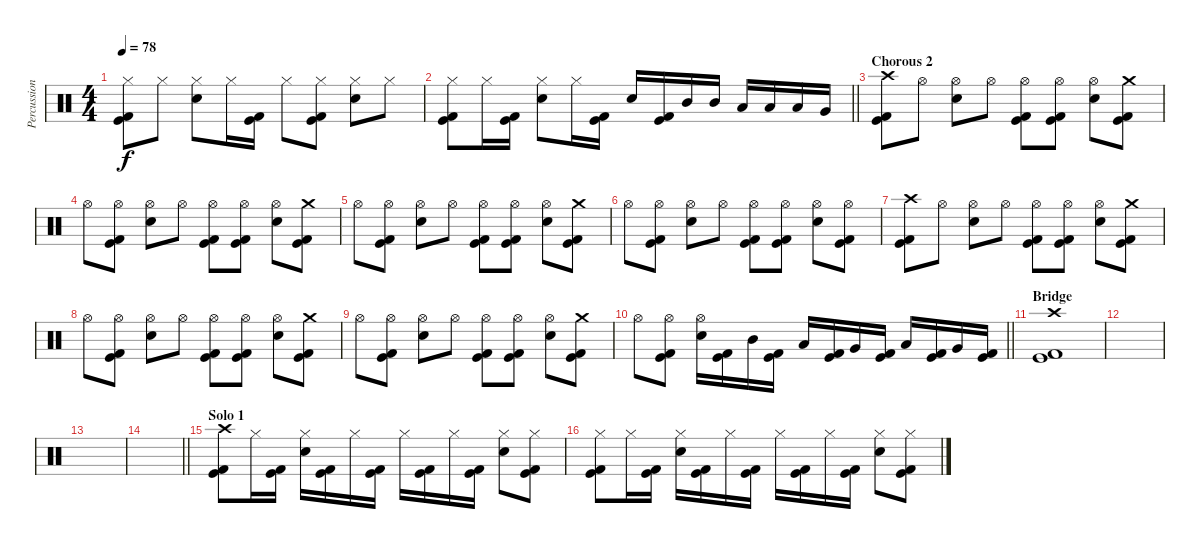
\track ("Percussion" "Percussion") {instrument percussion}
\staff {score}
\articulation defaults
\ts (4 4)
\tempo 78
\clef neutral
\ks c
("Hi-Hat (closed)" "Kick (hit)" "Kick (hit) 2").8{dy f} "Hi-Hat (closed)".8 ("Hi-Hat (closed)" "Electric Snare (hit)").8 "Hi-Hat (closed)".16 ("Kick (hit)" "Kick (hit) 2").16 "Hi-Hat (closed)".8 ("Hi-Hat (closed)" "Kick (hit)" "Kick (hit) 2").8 ("Hi-Hat (closed)" "Electric Snare (hit)").8 "Hi-Hat (closed)".8 |
\barLineRight lightlight
("Hi-Hat (closed)" "Kick (hit)" "Kick (hit) 2").8 "Hi-Hat (closed)".16 ("Kick (hit)" "Kick (hit) 2").16 ("Hi-Hat (closed)" "Electric Snare (hit)").8 "Hi-Hat (closed)".16 ("Kick (hit)" "Kick (hit) 2").16 "Electric Snare (hit)".16 ("Kick (hit)" "Kick (hit) 2").16 "Mid Tom (hit)".16 "Mid Tom (hit)".16 "Low Tom (hit)".16 "Low Tom (hit)".16 "Low Tom (hit)".16 "Very Low Tom (hit)".16 |
\section ("" "Chorous 2")
("Crash high (hit)" "Kick (hit)" "Kick (hit) 2").8 "Hi-Hat (open)".8 ("Hi-Hat (open)" "Electric Snare (hit)").8 "Hi-Hat (open)".8 ("Hi-Hat (open)" "Kick (hit)" "Kick (hit) 2").8 ("Hi-Hat (open)" "Kick (hit)" "Kick (hit) 2").8 ("Hi-Hat (open)" "Electric Snare (hit)").8 ("Crash medium (hit)" "Kick (hit)" "Kick (hit) 2").8 |
"Hi-Hat (open)".8 ("Hi-Hat (open)" "Kick (hit)" "Kick (hit) 2").8 ("Hi-Hat (open)" "Electric Snare (hit)").8 "Hi-Hat (open)".8 ("Hi-Hat (open)" "Kick (hit)" "Kick (hit) 2").8 ("Hi-Hat (open)" "Kick (hit)" "Kick (hit) 2").8 ("Hi-Hat (open)" "Electric Snare (hit)").8 ("Crash medium (hit)" "Kick (hit)" "Kick (hit) 2").8 |
"Hi-Hat (open)".8 ("Hi-Hat (open)" "Kick (hit)" "Kick (hit) 2").8 ("Hi-Hat (open)" "Electric Snare (hit)").8 "Hi-Hat (open)".8 ("Hi-Hat (open)" "Kick (hit)" "Kick (hit) 2").8 ("Hi-Hat (open)" "Kick (hit)" "Kick (hit) 2").8 ("Hi-Hat (open)" "Electric Snare (hit)").8 ("Crash medium (hit)" "Kick (hit)" "Kick (hit) 2").8 |
"Hi-Hat (open)".8 ("Hi-Hat (open)" "Kick (hit)" "Kick (hit) 2").8 ("Hi-Hat (open)" "Electric Snare (hit)").8 "Hi-Hat (open)".8 ("Hi-Hat (open)" "Kick (hit)" "Kick (hit) 2").8 ("Hi-Hat (open)" "Kick (hit)" "Kick (hit) 2").8 ("Hi-Hat (open)" "Electric Snare (hit)").8 ("Hi-Hat (open)" "Kick (hit)" "Kick (hit) 2").8 |
("Crash high (hit)" "Kick (hit)" "Kick (hit) 2").8 "Hi-Hat (open)".8 ("Hi-Hat (open)" "Electric Snare (hit)").8 "Hi-Hat (open)".8 ("Hi-Hat (open)" "Kick (hit)" "Kick (hit) 2").8 ("Hi-Hat (open)" "Kick (hit)" "Kick (hit) 2").8 ("Hi-Hat (open)" "Electric Snare (hit)").8 ("Crash medium (hit)" "Kick (hit)" "Kick (hit) 2").8 |
"Hi-Hat (open)".8 ("Hi-Hat (open)" "Kick (hit)" "Kick (hit) 2").8 ("Hi-Hat (open)" "Electric Snare (hit)").8 "Hi-Hat (open)".8 ("Hi-Hat (open)" "Kick (hit)" "Kick (hit) 2").8 ("Hi-Hat (open)" "Kick (hit)" "Kick (hit) 2").8 ("Hi-Hat (open)" "Electric Snare (hit)").8 ("Crash medium (hit)" "Kick (hit)" "Kick (hit) 2").8 |
"Hi-Hat (open)".8 ("Hi-Hat (open)" "Kick (hit)" "Kick (hit) 2").8 ("Hi-Hat (open)" "Electric Snare (hit)").8 "Hi-Hat (open)".8 ("Hi-Hat (open)" "Kick (hit)" "Kick (hit) 2").8 ("Hi-Hat (open)" "Kick (hit)" "Kick (hit) 2").8 ("Hi-Hat (open)" "Electric Snare (hit)").8 ("Crash medium (hit)" "Kick (hit)" "Kick (hit) 2").8 |
\barLineRight lightlight "Hi-Hat (open)".8
("Hi-Hat (open)" "Kick (hit)" "Kick (hit) 2").8 ("Hi-Hat (open)" "Electric Snare (hit)").16 ("Kick (hit)" "Kick (hit) 2").16 "Mid Tom (hit)".16 ("Kick (hit)" "Kick (hit) 2").16 "Low Tom (hit)".16 ("Kick (hit)" "Kick (hit) 2").16 "Very Low Tom (hit)".16 ("Kick (hit)" "Kick (hit) 2").16 "Low Tom (hit)".16 ("Kick (hit)" "Kick (hit) 2").16 "Very Low Tom (hit)".16 ("Kick (hit)" "Kick (hit) 2").16 |
\section ("" "Bridge")
("Crash high (hit)" "Kick (hit)" "Kick (hit) 2").1 |
|
|
\barLineRight lightlight
|
\section ("" "Solo 1")
("Crash high (hit)" "Kick (hit)" "Kick (hit) 2").8 "Hi-Hat (closed)".16 ("Kick (hit)" "Kick (hit) 2").16 ("Hi-Hat (closed)" "Electric Snare (hit)").16 ("Kick (hit)" "Kick (hit) 2").16 "Hi-Hat (closed)".16 ("Kick (hit)" "Kick (hit) 2").16 "Hi-Hat (closed)".16 ("Kick (hit)" "Kick (hit) 2").16 "Hi-Hat (closed)".16 ("Kick (hit)" "Kick (hit) 2").16 ("Hi-Hat (closed)" "Electric Snare (hit)").8 ("Hi-Hat (closed)" "Kick (hit)" "Kick (hit) 2").8 |
("Hi-Hat (closed)" "Kick (hit)" "Kick (hit) 2").8 "Hi-Hat (closed)".16 ("Kick (hit)" "Kick (hit) 2").16 ("Hi-Hat (closed)" "Electric Snare (hit)").16 ("Kick (hit)" "Kick (hit) 2").16 "Hi-Hat (closed)".16 ("Kick (hit)" "Kick (hit) 2").16 "Hi-Hat (closed)".16 ("Kick (hit)" "Kick (hit) 2").16 "Hi-Hat (closed)".16 ("Kick (hit)" "Kick (hit) 2").16 ("Hi-Hat (closed)" "Electric Snare (hit)").8 ("Hi-Hat (closed)" "Kick (hit)" "Kick (hit) 2").8
